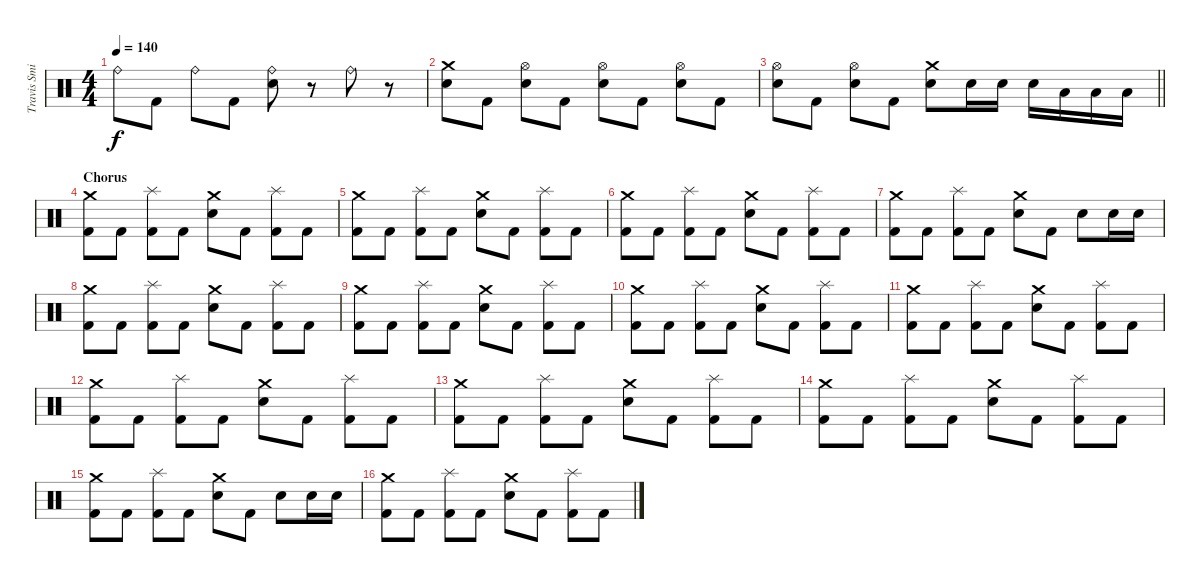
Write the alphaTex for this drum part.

\track ("Travis Smith" "Travis Smi") {instrument percussion}
\staff {score}
\articulation defaults
\ts (4 4)
\tempo 140
\clef neutral
\ks c "Ride (bell)".8{dy f} "Kick (hit) 2".8 "Ride (bell)".8 "Kick (hit) 2".8
("Ride (bell)" "Electric Snare (hit)").8 r.8 "Ride (bell)".8 r.8 |
("Crash medium (hit)" "Electric Snare (hit)").8 "Kick (hit) 2".8 ("Hi-Hat (open)" "Electric Snare (hit)").8 "Kick (hit) 2".8 ("Hi-Hat (open)" "Electric Snare (hit)").8 "Kick (hit) 2".8 ("Hi-Hat (open)" "Electric Snare (hit)").8 "Kick (hit) 2".8 |
\barLineRight lightlight
("Hi-Hat (open)" "Electric Snare (hit)").8 "Kick (hit) 2".8 ("Hi-Hat (open)" "Electric Snare (hit)").8 "Kick (hit) 2".8 ("Crash medium (hit)" "Electric Snare (hit)").8 "Electric Snare (hit)".16 "Electric Snare (hit)".16 "Electric Snare (hit)".16 "Low Tom (hit)".16 "Low Tom (hit)".16 "Low Tom (hit)".16 |
\section ("" "Chorus")
("Crash medium (hit)" "Kick (hit) 2").8 "Kick (hit) 2".8 ("Splash (hit)" "Kick (hit) 2").8 "Kick (hit) 2".8 ("Crash medium (hit)" "Electric Snare (hit)").8 "Kick (hit) 2".8 ("Splash (hit)" "Kick (hit) 2").8 "Kick (hit) 2".8 |
("Crash medium (hit)" "Kick (hit) 2").8 "Kick (hit) 2".8 ("Splash (hit)" "Kick (hit) 2").8 "Kick (hit) 2".8 ("Crash medium (hit)" "Electric Snare (hit)").8 "Kick (hit) 2".8 ("Splash (hit)" "Kick (hit) 2").8 "Kick (hit) 2".8 |
("Crash medium (hit)" "Kick (hit) 2").8 "Kick (hit) 2".8 ("Splash (hit)" "Kick (hit) 2").8 "Kick (hit) 2".8 ("Crash medium (hit)" "Electric Snare (hit)").8 "Kick (hit) 2".8 ("Splash (hit)" "Kick (hit) 2").8 "Kick (hit) 2".8 |
("Crash medium (hit)" "Kick (hit) 2").8 "Kick (hit) 2".8 ("Splash (hit)" "Kick (hit) 2").8 "Kick (hit) 2".8 ("Crash medium (hit)" "Electric Snare (hit)").8 "Kick (hit) 2".8 "Electric Snare (hit)".8 "Electric Snare (hit)".16 "Electric Snare (hit)".16 |
("Crash medium (hit)" "Kick (hit) 2").8 "Kick (hit) 2".8 ("Splash (hit)" "Kick (hit) 2").8 "Kick (hit) 2".8 ("Crash medium (hit)" "Electric Snare (hit)").8 "Kick (hit) 2".8 ("Splash (hit)" "Kick (hit) 2").8 "Kick (hit) 2".8 |
("Crash medium (hit)" "Kick (hit) 2").8 "Kick (hit) 2".8 ("Splash (hit)" "Kick (hit) 2").8 "Kick (hit) 2".8 ("Crash medium (hit)" "Electric Snare (hit)").8 "Kick (hit) 2".8 ("Splash (hit)" "Kick (hit) 2").8 "Kick (hit) 2".8 |
("Crash medium (hit)" "Kick (hit) 2").8 "Kick (hit) 2".8 ("Splash (hit)" "Kick (hit) 2").8 "Kick (hit) 2".8 ("Crash medium (hit)" "Electric Snare (hit)").8 "Kick (hit) 2".8 ("Splash (hit)" "Kick (hit) 2").8 "Kick (hit) 2".8 |
("Crash medium (hit)" "Kick (hit) 2").8 "Kick (hit) 2".8 ("Splash (hit)" "Kick (hit) 2").8 "Kick (hit) 2".8 ("Crash medium (hit)" "Electric Snare (hit)").8 "Kick (hit) 2".8 ("Splash (hit)" "Kick (hit) 2").8 "Kick (hit) 2".8 |
("Crash medium (hit)" "Kick (hit) 2").8 "Kick (hit) 2".8 ("Splash (hit)" "Kick (hit) 2").8 "Kick (hit) 2".8 ("Crash medium (hit)" "Electric Snare (hit)").8 "Kick (hit) 2".8 ("Splash (hit)" "Kick (hit) 2").8 "Kick (hit) 2".8 |
("Crash medium (hit)" "Kick (hit) 2").8 "Kick (hit) 2".8 ("Splash (hit)" "Kick (hit) 2").8 "Kick (hit) 2".8 ("Crash medium (hit)" "Electric Snare (hit)").8 "Kick (hit) 2".8 ("Splash (hit)" "Kick (hit) 2").8 "Kick (hit) 2".8 |
("Crash medium (hit)" "Kick (hit) 2").8 "Kick (hit) 2".8 ("Splash (hit)" "Kick (hit) 2").8 "Kick (hit) 2".8 ("Crash medium (hit)" "Electric Snare (hit)").8 "Kick (hit) 2".8 ("Splash (hit)" "Kick (hit) 2").8 "Kick (hit) 2".8 |
("Crash medium (hit)" "Kick (hit) 2").8 "Kick (hit) 2".8 ("Splash (hit)" "Kick (hit) 2").8 "Kick (hit) 2".8 ("Crash medium (hit)" "Electric Snare (hit)").8 "Kick (hit) 2".8 "Electric Snare (hit)".8 "Electric Snare (hit)".16 "Electric Snare (hit)".16 |
("Crash medium (hit)" "Kick (hit) 2").8 "Kick (hit) 2".8 ("Splash (hit)" "Kick (hit) 2").8 "Kick (hit) 2".8 ("Crash medium (hit)" "Electric Snare (hit)").8 "Kick (hit) 2".8 ("Splash (hit)" "Kick (hit) 2").8 "Kick (hit) 2".8
